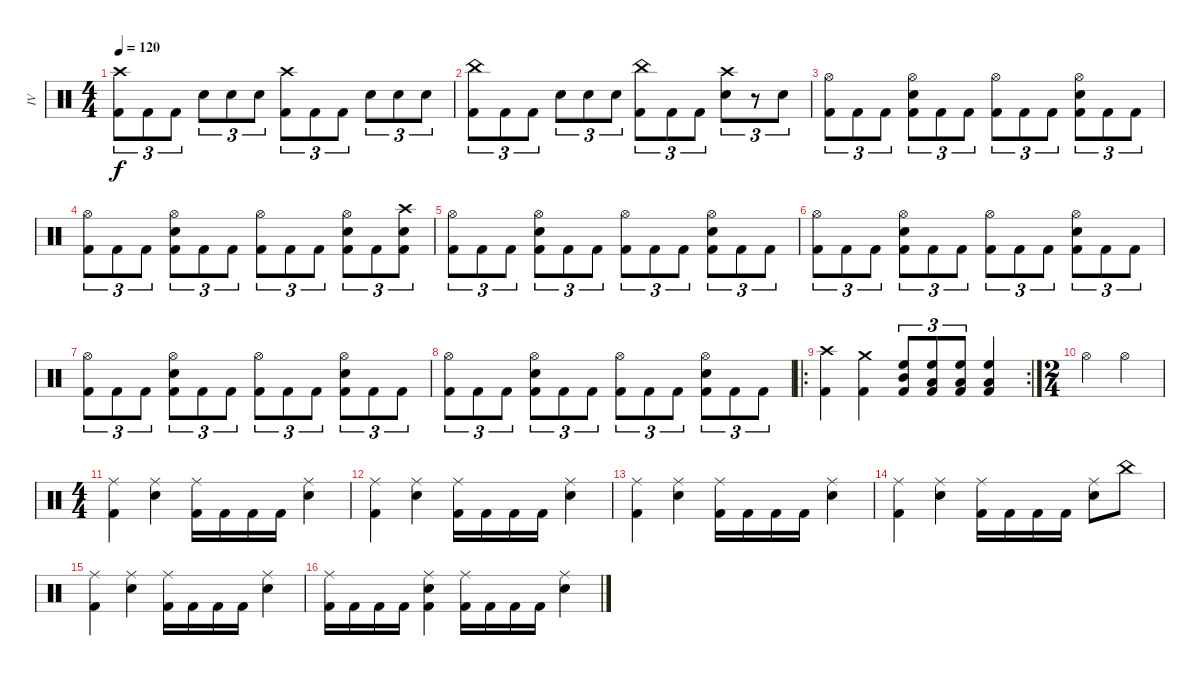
\track ("IV" "IV") {instrument percussion}
\staff {score}
\articulation defaults
\ts (4 4)
\tempo 120
\clef neutral
\ks c
("Crash high (hit)" "Kick (hit) 2").8{tu (3 2) dy f} "Kick (hit) 2".8{tu (3 2)} "Kick (hit) 2".8{tu (3 2)} "Snare (hit) 2".8{tu (3 2)} "Snare (hit) 2".8{tu (3 2)} "Snare (hit) 2".8{tu (3 2)} ("Crash high (hit)" "Kick (hit) 2").8{tu (3 2)} "Kick (hit) 2".8{tu (3 2)} "Kick (hit) 2".8{tu (3 2)} "Snare (hit) 2".8{tu (3 2)} "Snare (hit) 2".8{tu (3 2)} "Snare (hit) 2".8{tu (3 2)} |
("China (hit)" "Kick (hit) 2").8{tu (3 2)} "Kick (hit) 2".8{tu (3 2)} "Kick (hit) 2".8{tu (3 2)} "Snare (hit) 2".8{tu (3 2)} "Snare (hit) 2".8{tu (3 2)} "Snare (hit) 2".8{tu (3 2)} ("China (hit)" "Kick (hit) 2").8{tu (3 2)} "Kick (hit) 2".8{tu (3 2)} "Kick (hit) 2".8{tu (3 2)} ("Crash high (hit)" "Snare (hit) 2").8{tu (3 2)} r.8{tu (3 2)} "Snare (hit) 2".8{tu (3 2)} |
("Hi-Hat (open)" "Kick (hit) 2").8{tu (3 2)} "Kick (hit) 2".8{tu (3 2)} "Kick (hit) 2".8{tu (3 2)} ("Hi-Hat (open)" "Snare (hit) 2" "Kick (hit) 2").8{tu (3 2)} "Kick (hit) 2".8{tu (3 2)} "Kick (hit) 2".8{tu (3 2)} ("Hi-Hat (open)" "Kick (hit) 2").8{tu (3 2)} "Kick (hit) 2".8{tu (3 2)} "Kick (hit) 2".8{tu (3 2)} ("Hi-Hat (open)" "Snare (hit) 2" "Kick (hit) 2").8{tu (3 2)} "Kick (hit) 2".8{tu (3 2)} "Kick (hit) 2".8{tu (3 2)} |
("Hi-Hat (open)" "Kick (hit) 2").8{tu (3 2)} "Kick (hit) 2".8{tu (3 2)} "Kick (hit) 2".8{tu (3 2)} ("Hi-Hat (open)" "Snare (hit) 2" "Kick (hit) 2").8{tu (3 2)} "Kick (hit) 2".8{tu (3 2)} "Kick (hit) 2".8{tu (3 2)} ("Hi-Hat (open)" "Kick (hit) 2").8{tu (3 2)} "Kick (hit) 2".8{tu (3 2)} "Kick (hit) 2".8{tu (3 2)} ("Hi-Hat (open)" "Snare (hit) 2" "Kick (hit) 2").8{tu (3 2)} "Kick (hit) 2".8{tu (3 2)} ("Crash high (hit)" "Snare (hit) 2" "Kick (hit) 2").8{tu (3 2)} |
("Hi-Hat (open)" "Kick (hit) 2").8{tu (3 2)} "Kick (hit) 2".8{tu (3 2)} "Kick (hit) 2".8{tu (3 2)} ("Hi-Hat (open)" "Snare (hit) 2" "Kick (hit) 2").8{tu (3 2)} "Kick (hit) 2".8{tu (3 2)} "Kick (hit) 2".8{tu (3 2)} ("Hi-Hat (open)" "Kick (hit) 2").8{tu (3 2)} "Kick (hit) 2".8{tu (3 2)} "Kick (hit) 2".8{tu (3 2)} ("Hi-Hat (open)" "Snare (hit) 2" "Kick (hit) 2").8{tu (3 2)} "Kick (hit) 2".8{tu (3 2)} "Kick (hit) 2".8{tu (3 2)} |
("Hi-Hat (open)" "Kick (hit) 2").8{tu (3 2)} "Kick (hit) 2".8{tu (3 2)} "Kick (hit) 2".8{tu (3 2)} ("Hi-Hat (open)" "Snare (hit) 2" "Kick (hit) 2").8{tu (3 2)} "Kick (hit) 2".8{tu (3 2)} "Kick (hit) 2".8{tu (3 2)} ("Hi-Hat (open)" "Kick (hit) 2").8{tu (3 2)} "Kick (hit) 2".8{tu (3 2)} "Kick (hit) 2".8{tu (3 2)} ("Hi-Hat (open)" "Snare (hit) 2" "Kick (hit) 2").8{tu (3 2)} "Kick (hit) 2".8{tu (3 2)} "Kick (hit) 2".8{tu (3 2)} |
("Hi-Hat (open)" "Kick (hit) 2").8{tu (3 2)} "Kick (hit) 2".8{tu (3 2)} "Kick (hit) 2".8{tu (3 2)} ("Hi-Hat (open)" "Snare (hit) 2" "Kick (hit) 2").8{tu (3 2)} "Kick (hit) 2".8{tu (3 2)} "Kick (hit) 2".8{tu (3 2)} ("Hi-Hat (open)" "Kick (hit) 2").8{tu (3 2)} "Kick (hit) 2".8{tu (3 2)} "Kick (hit) 2".8{tu (3 2)} ("Hi-Hat (open)" "Snare (hit) 2" "Kick (hit) 2").8{tu (3 2)} "Kick (hit) 2".8{tu (3 2)} "Kick (hit) 2".8{tu (3 2)} |
("Hi-Hat (open)" "Kick (hit) 2").8{tu (3 2)} "Kick (hit) 2".8{tu (3 2)} "Kick (hit) 2".8{tu (3 2)} ("Hi-Hat (open)" "Snare (hit) 2" "Kick (hit) 2").8{tu (3 2)} "Kick (hit) 2".8{tu (3 2)} "Kick (hit) 2".8{tu (3 2)} ("Hi-Hat (open)" "Kick (hit) 2").8{tu (3 2)} "Kick (hit) 2".8{tu (3 2)} "Kick (hit) 2".8{tu (3 2)} ("Hi-Hat (open)" "Snare (hit) 2" "Kick (hit) 2").8{tu (3 2)} "Kick (hit) 2".8{tu (3 2)} "Kick (hit) 2".8{tu (3 2)} |
\ro
\rc 2
("Crash high (hit)" "Kick (hit) 2").4 ("Crash medium (hit)" "Kick (hit) 2").4 ("High Floor Tom (hit)" "Mid Tom (hit)" "Kick (hit) 2").8{tu (3 2)} ("High Floor Tom (hit)" "Low Tom (hit)" "Kick (hit) 2").8{tu (3 2)} ("High Floor Tom (hit)" "Low Tom (hit)" "Kick (hit) 2").8{tu (3 2)} ("High Floor Tom (hit)" "Low Tom (hit)" "Kick (hit) 2").4 |
\ts (2 4)
"Hi-Hat (open)".4 "Hi-Hat (open)".4 |
\ts (4 4)
("Ride (middle)" "Kick (hit) 2").4 ("Ride (middle)" "Snare (hit) 2").4 ("Ride (middle)" "Kick (hit) 2").16 "Kick (hit) 2".16 "Kick (hit) 2".16 "Kick (hit) 2".16 ("Ride (middle)" "Snare (hit) 2").4 |
("Ride (middle)" "Kick (hit) 2").4 ("Ride (middle)" "Snare (hit) 2").4 ("Ride (middle)" "Kick (hit) 2").16 "Kick (hit) 2".16 "Kick (hit) 2".16 "Kick (hit) 2".16 ("Ride (middle)" "Snare (hit) 2").4 |
("Ride (middle)" "Kick (hit) 2").4 ("Ride (middle)" "Snare (hit) 2").4 ("Ride (middle)" "Kick (hit) 2").16 "Kick (hit) 2".16 "Kick (hit) 2".16 "Kick (hit) 2".16 ("Ride (middle)" "Snare (hit) 2").4 |
("Ride (middle)" "Kick (hit) 2").4 ("Ride (middle)" "Snare (hit) 2").4 ("Ride (middle)" "Kick (hit) 2").16 "Kick (hit) 2".16 "Kick (hit) 2".16 "Kick (hit) 2".16 ("Ride (middle)" "Snare (hit) 2").8 "China (hit)".8 |
("Ride (middle)" "Kick (hit) 2").4 ("Ride (middle)" "Snare (hit) 2").4 ("Ride (middle)" "Kick (hit) 2").16 "Kick (hit) 2".16 "Kick (hit) 2".16 "Kick (hit) 2".16 ("Ride (middle)" "Snare (hit) 2").4 |
("Ride (middle)" "Kick (hit) 2").16 "Kick (hit) 2".16 "Kick (hit) 2".16 "Kick (hit) 2".16 ("Ride (middle)" "Snare (hit) 2" "Kick (hit) 2").4 ("Ride (middle)" "Kick (hit) 2").16 "Kick (hit) 2".16 "Kick (hit) 2".16 "Kick (hit) 2".16 ("Ride (middle)" "Snare (hit) 2").4
